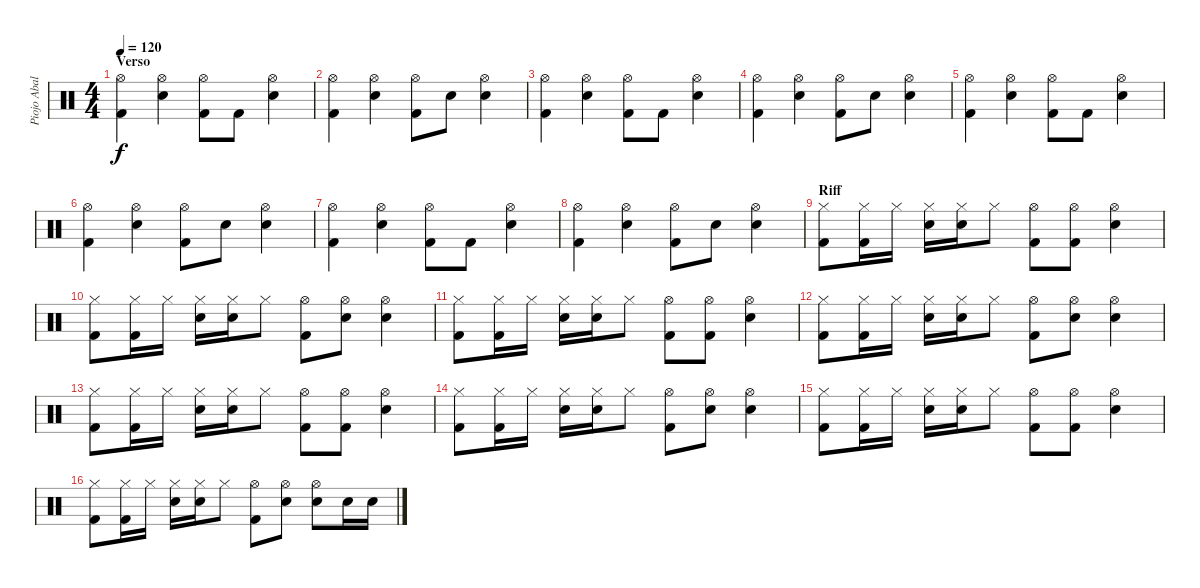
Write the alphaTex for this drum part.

\track ("Piojo Abalos" "Piojo Abal") {instrument percussion}
\staff {score}
\articulation defaults
\ts (4 4)
\section ("" "Verso")
\tempo 120
\clef neutral
\ks c
("Hi-Hat (open)" "Kick (hit) 2").4{dy f} ("Hi-Hat (open)" "Electric Snare (hit)").4 ("Hi-Hat (open)" "Kick (hit) 2").8 "Kick (hit) 2".8 ("Hi-Hat (open)" "Electric Snare (hit)").4 |
("Hi-Hat (open)" "Kick (hit) 2").4 ("Hi-Hat (open)" "Electric Snare (hit)").4 ("Hi-Hat (open)" "Kick (hit) 2").8 "Electric Snare (hit)".8 ("Hi-Hat (open)" "Electric Snare (hit)").4 |
("Hi-Hat (open)" "Kick (hit) 2").4 ("Hi-Hat (open)" "Electric Snare (hit)").4 ("Hi-Hat (open)" "Kick (hit) 2").8 "Kick (hit) 2".8 ("Hi-Hat (open)" "Electric Snare (hit)").4 |
("Hi-Hat (open)" "Kick (hit) 2").4 ("Hi-Hat (open)" "Electric Snare (hit)").4 ("Hi-Hat (open)" "Kick (hit) 2").8 "Electric Snare (hit)".8 ("Hi-Hat (open)" "Electric Snare (hit)").4 |
("Hi-Hat (open)" "Kick (hit) 2").4 ("Hi-Hat (open)" "Electric Snare (hit)").4 ("Hi-Hat (open)" "Kick (hit) 2").8 "Kick (hit) 2".8 ("Hi-Hat (open)" "Electric Snare (hit)").4 |
("Hi-Hat (open)" "Kick (hit) 2").4 ("Hi-Hat (open)" "Electric Snare (hit)").4 ("Hi-Hat (open)" "Kick (hit) 2").8 "Electric Snare (hit)".8 ("Hi-Hat (open)" "Electric Snare (hit)").4 |
("Hi-Hat (open)" "Kick (hit) 2").4 ("Hi-Hat (open)" "Electric Snare (hit)").4 ("Hi-Hat (open)" "Kick (hit) 2").8 "Kick (hit) 2".8 ("Hi-Hat (open)" "Electric Snare (hit)").4 |
("Hi-Hat (open)" "Kick (hit) 2").4 ("Hi-Hat (open)" "Electric Snare (hit)").4 ("Hi-Hat (open)" "Kick (hit) 2").8 "Electric Snare (hit)".8 ("Hi-Hat (open)" "Electric Snare (hit)").4 |
\section ("" "Riff")
("Hi-Hat (closed)" "Kick (hit) 2").8 ("Hi-Hat (closed)" "Kick (hit) 2").16 "Hi-Hat (closed)".16 ("Hi-Hat (closed)" "Electric Snare (hit)").16 ("Hi-Hat (closed)" "Electric Snare (hit)").16 "Hi-Hat (closed)".8 ("Hi-Hat (open)" "Kick (hit) 2").8 ("Hi-Hat (open)" "Kick (hit) 2").8 ("Hi-Hat (open)" "Electric Snare (hit)").4 |
("Hi-Hat (closed)" "Kick (hit) 2").8 ("Hi-Hat (closed)" "Kick (hit) 2").16 "Hi-Hat (closed)".16 ("Hi-Hat (closed)" "Electric Snare (hit)").16 ("Hi-Hat (closed)" "Electric Snare (hit)").16 "Hi-Hat (closed)".8 ("Hi-Hat (open)" "Kick (hit) 2").8 ("Hi-Hat (open)" "Electric Snare (hit)").8 ("Hi-Hat (open)" "Electric Snare (hit)").4 |
("Hi-Hat (closed)" "Kick (hit) 2").8 ("Hi-Hat (closed)" "Kick (hit) 2").16 "Hi-Hat (closed)".16 ("Hi-Hat (closed)" "Electric Snare (hit)").16 ("Hi-Hat (closed)" "Electric Snare (hit)").16 "Hi-Hat (closed)".8 ("Hi-Hat (open)" "Kick (hit) 2").8 ("Hi-Hat (open)" "Kick (hit) 2").8 ("Hi-Hat (open)" "Electric Snare (hit)").4 |
("Hi-Hat (closed)" "Kick (hit) 2").8 ("Hi-Hat (closed)" "Kick (hit) 2").16 "Hi-Hat (closed)".16 ("Hi-Hat (closed)" "Electric Snare (hit)").16 ("Hi-Hat (closed)" "Electric Snare (hit)").16 "Hi-Hat (closed)".8 ("Hi-Hat (open)" "Kick (hit) 2").8 ("Hi-Hat (open)" "Electric Snare (hit)").8 ("Hi-Hat (open)" "Electric Snare (hit)").4 |
("Hi-Hat (closed)" "Kick (hit) 2").8 ("Hi-Hat (closed)" "Kick (hit) 2").16 "Hi-Hat (closed)".16 ("Hi-Hat (closed)" "Electric Snare (hit)").16 ("Hi-Hat (closed)" "Electric Snare (hit)").16 "Hi-Hat (closed)".8 ("Hi-Hat (open)" "Kick (hit) 2").8 ("Hi-Hat (open)" "Kick (hit) 2").8 ("Hi-Hat (open)" "Electric Snare (hit)").4 |
("Hi-Hat (closed)" "Kick (hit) 2").8 ("Hi-Hat (closed)" "Kick (hit) 2").16 "Hi-Hat (closed)".16 ("Hi-Hat (closed)" "Electric Snare (hit)").16 ("Hi-Hat (closed)" "Electric Snare (hit)").16 "Hi-Hat (closed)".8 ("Hi-Hat (open)" "Kick (hit) 2").8 ("Hi-Hat (open)" "Electric Snare (hit)").8 ("Hi-Hat (open)" "Electric Snare (hit)").4 |
("Hi-Hat (closed)" "Kick (hit) 2").8 ("Hi-Hat (closed)" "Kick (hit) 2").16 "Hi-Hat (closed)".16 ("Hi-Hat (closed)" "Electric Snare (hit)").16 ("Hi-Hat (closed)" "Electric Snare (hit)").16 "Hi-Hat (closed)".8 ("Hi-Hat (open)" "Kick (hit) 2").8 ("Hi-Hat (open)" "Kick (hit) 2").8 ("Hi-Hat (open)" "Electric Snare (hit)").4 |
("Hi-Hat (closed)" "Kick (hit) 2").8 ("Hi-Hat (closed)" "Kick (hit) 2").16 "Hi-Hat (closed)".16 ("Hi-Hat (closed)" "Electric Snare (hit)").16 ("Hi-Hat (closed)" "Electric Snare (hit)").16 "Hi-Hat (closed)".8 ("Hi-Hat (open)" "Kick (hit) 2").8 ("Hi-Hat (open)" "Electric Snare (hit)").8 ("Hi-Hat (open)" "Electric Snare (hit)").8 "Electric Snare (hit)".16 "Electric Snare (hit)".16
